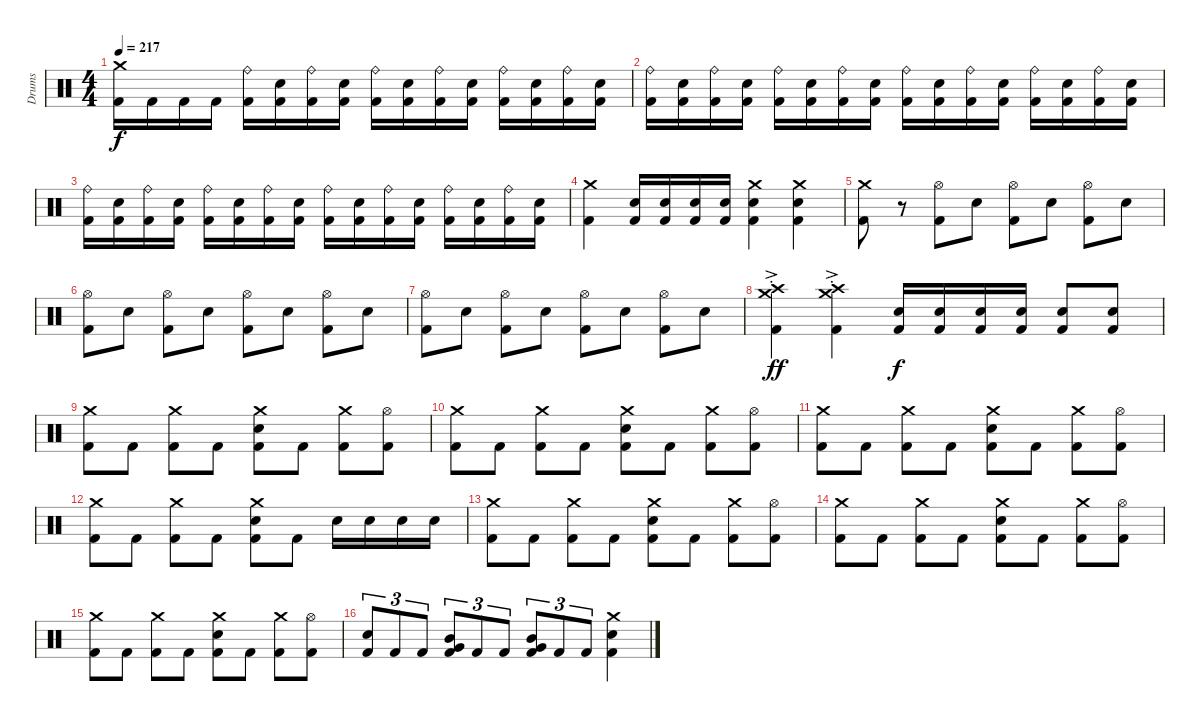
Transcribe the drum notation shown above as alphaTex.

\track ("Drums" "Drums") {instrument percussion}
\staff {score}
\articulation defaults
\ts (4 4)
\tempo 217
\clef neutral
\ks c
("Crash medium (hit)" "Kick (hit) 2").16{dy f} "Kick (hit) 2".16 "Kick (hit) 2".16 "Kick (hit) 2".16 ("Ride (bell)" "Kick (hit) 2").16 ("Electric Snare (hit)" "Kick (hit) 2").16 ("Ride (bell)" "Kick (hit) 2").16 ("Electric Snare (hit)" "Kick (hit) 2").16 ("Ride (bell)" "Kick (hit) 2").16 ("Electric Snare (hit)" "Kick (hit) 2").16 ("Ride (bell)" "Kick (hit) 2").16 ("Electric Snare (hit)" "Kick (hit) 2").16 ("Ride (bell)" "Kick (hit) 2").16 ("Electric Snare (hit)" "Kick (hit) 2").16 ("Ride (bell)" "Kick (hit) 2").16 ("Electric Snare (hit)" "Kick (hit) 2").16 |
("Ride (bell)" "Kick (hit) 2").16 ("Electric Snare (hit)" "Kick (hit) 2").16 ("Ride (bell)" "Kick (hit) 2").16 ("Electric Snare (hit)" "Kick (hit) 2").16 ("Ride (bell)" "Kick (hit) 2").16 ("Electric Snare (hit)" "Kick (hit) 2").16 ("Ride (bell)" "Kick (hit) 2").16 ("Electric Snare (hit)" "Kick (hit) 2").16 ("Ride (bell)" "Kick (hit) 2").16 ("Electric Snare (hit)" "Kick (hit) 2").16 ("Ride (bell)" "Kick (hit) 2").16 ("Electric Snare (hit)" "Kick (hit) 2").16 ("Ride (bell)" "Kick (hit) 2").16 ("Electric Snare (hit)" "Kick (hit) 2").16 ("Ride (bell)" "Kick (hit) 2").16 ("Electric Snare (hit)" "Kick (hit) 2").16 |
("Ride (bell)" "Kick (hit) 2").16 ("Electric Snare (hit)" "Kick (hit) 2").16 ("Ride (bell)" "Kick (hit) 2").16 ("Electric Snare (hit)" "Kick (hit) 2").16 ("Ride (bell)" "Kick (hit) 2").16 ("Electric Snare (hit)" "Kick (hit) 2").16 ("Ride (bell)" "Kick (hit) 2").16 ("Electric Snare (hit)" "Kick (hit) 2").16 ("Ride (bell)" "Kick (hit) 2").16 ("Electric Snare (hit)" "Kick (hit) 2").16 ("Ride (bell)" "Kick (hit) 2").16 ("Electric Snare (hit)" "Kick (hit) 2").16 ("Ride (bell)" "Kick (hit) 2").16 ("Electric Snare (hit)" "Kick (hit) 2").16 ("Ride (bell)" "Kick (hit) 2").16 ("Electric Snare (hit)" "Kick (hit) 2").16 |
("Crash medium (hit)" "Kick (hit) 2").4 ("Electric Snare (hit)" "Kick (hit) 2").16 ("Electric Snare (hit)" "Kick (hit) 2").16 ("Electric Snare (hit)" "Kick (hit) 2").16 ("Electric Snare (hit)" "Kick (hit) 2").16 ("Crash medium (hit)" "Electric Snare (hit)" "Kick (hit) 2").4 ("Crash medium (hit)" "Electric Snare (hit)" "Kick (hit) 2").4 |
("Crash medium (hit)" "Kick (hit) 2").8 r.8 ("Hi-Hat (open)" "Kick (hit) 2").8 "Electric Snare (hit)".8 ("Hi-Hat (open)" "Kick (hit) 2").8 "Electric Snare (hit)".8 ("Hi-Hat (open)" "Kick (hit) 2").8 "Electric Snare (hit)".8 |
("Hi-Hat (open)" "Kick (hit) 2").8 "Electric Snare (hit)".8 ("Hi-Hat (open)" "Kick (hit) 2").8 "Electric Snare (hit)".8 ("Hi-Hat (open)" "Kick (hit) 2").8 "Electric Snare (hit)".8 ("Hi-Hat (open)" "Kick (hit) 2").8 "Electric Snare (hit)".8 |
("Hi-Hat (open)" "Kick (hit) 2").8 "Electric Snare (hit)".8 ("Hi-Hat (open)" "Kick (hit) 2").8 "Electric Snare (hit)".8 ("Hi-Hat (open)" "Kick (hit) 2").8 "Electric Snare (hit)".8 ("Hi-Hat (open)" "Kick (hit) 2").8 "Electric Snare (hit)".8 |
("Crash medium (hit)"{ac st} "Crash high (hit)"{st} "Kick (hit) 2").4{dy ff} ("Crash medium (hit)"{ac st} "Crash high (hit)"{st} "Kick (hit) 2").4 ("Electric Snare (hit)" "Kick (hit) 2").16{dy f} ("Electric Snare (hit)" "Kick (hit) 2").16 ("Electric Snare (hit)" "Kick (hit) 2").16 ("Electric Snare (hit)" "Kick (hit) 2").16 ("Electric Snare (hit)" "Kick (hit) 2").8 ("Electric Snare (hit)" "Kick (hit) 2").8 |
("Crash medium (hit)" "Kick (hit) 2").8 "Kick (hit) 2".8 ("Crash medium (hit)" "Kick (hit) 2").8 "Kick (hit) 2".8 ("Crash medium (hit)" "Electric Snare (hit)" "Kick (hit) 2").8 "Kick (hit) 2".8 ("Crash medium (hit)" "Kick (hit) 2").8 ("Hi-Hat (open)" "Kick (hit) 2").8 |
("Crash medium (hit)" "Kick (hit) 2").8 "Kick (hit) 2".8 ("Crash medium (hit)" "Kick (hit) 2").8 "Kick (hit) 2".8 ("Crash medium (hit)" "Electric Snare (hit)" "Kick (hit) 2").8 "Kick (hit) 2".8 ("Crash medium (hit)" "Kick (hit) 2").8 ("Hi-Hat (open)" "Kick (hit) 2").8 |
("Crash medium (hit)" "Kick (hit) 2").8 "Kick (hit) 2".8 ("Crash medium (hit)" "Kick (hit) 2").8 "Kick (hit) 2".8 ("Crash medium (hit)" "Electric Snare (hit)" "Kick (hit) 2").8 "Kick (hit) 2".8 ("Crash medium (hit)" "Kick (hit) 2").8 ("Hi-Hat (open)" "Kick (hit) 2").8 |
("Crash medium (hit)" "Kick (hit) 2").8 "Kick (hit) 2".8 ("Crash medium (hit)" "Kick (hit) 2").8 "Kick (hit) 2".8 ("Crash medium (hit)" "Electric Snare (hit)" "Kick (hit) 2").8 "Kick (hit) 2".8 "Electric Snare (hit)".16 "Electric Snare (hit)".16 "Electric Snare (hit)".16 "Electric Snare (hit)".16 |
("Crash medium (hit)" "Kick (hit) 2").8 "Kick (hit) 2".8 ("Crash medium (hit)" "Kick (hit) 2").8 "Kick (hit) 2".8 ("Crash medium (hit)" "Electric Snare (hit)" "Kick (hit) 2").8 "Kick (hit) 2".8 ("Crash medium (hit)" "Kick (hit) 2").8 ("Hi-Hat (open)" "Kick (hit) 2").8 |
("Crash medium (hit)" "Kick (hit) 2").8 "Kick (hit) 2".8 ("Crash medium (hit)" "Kick (hit) 2").8 "Kick (hit) 2".8 ("Crash medium (hit)" "Electric Snare (hit)" "Kick (hit) 2").8 "Kick (hit) 2".8 ("Crash medium (hit)" "Kick (hit) 2").8 ("Hi-Hat (open)" "Kick (hit) 2").8 |
("Crash medium (hit)" "Kick (hit) 2").8 "Kick (hit) 2".8 ("Crash medium (hit)" "Kick (hit) 2").8 "Kick (hit) 2".8 ("Crash medium (hit)" "Electric Snare (hit)" "Kick (hit) 2").8 "Kick (hit) 2".8 ("Crash medium (hit)" "Kick (hit) 2").8 ("Hi-Hat (open)" "Kick (hit) 2").8 |
("Electric Snare (hit)" "Kick (hit) 2").8{tu (3 2)} "Kick (hit) 2".8{tu (3 2)} "Kick (hit) 2".8{tu (3 2)} ("Mid Tom (hit)" "Very Low Tom (hit)" "Kick (hit) 2").8{tu (3 2)} "Kick (hit) 2".8{tu (3 2)} "Kick (hit) 2".8{tu (3 2)} ("Mid Tom (hit)" "Very Low Tom (hit)" "Kick (hit) 2").8{tu (3 2)} "Kick (hit) 2".8{tu (3 2)} "Kick (hit) 2".8{tu (3 2)} ("Crash medium (hit)" "Electric Snare (hit)" "Kick (hit) 2").4
